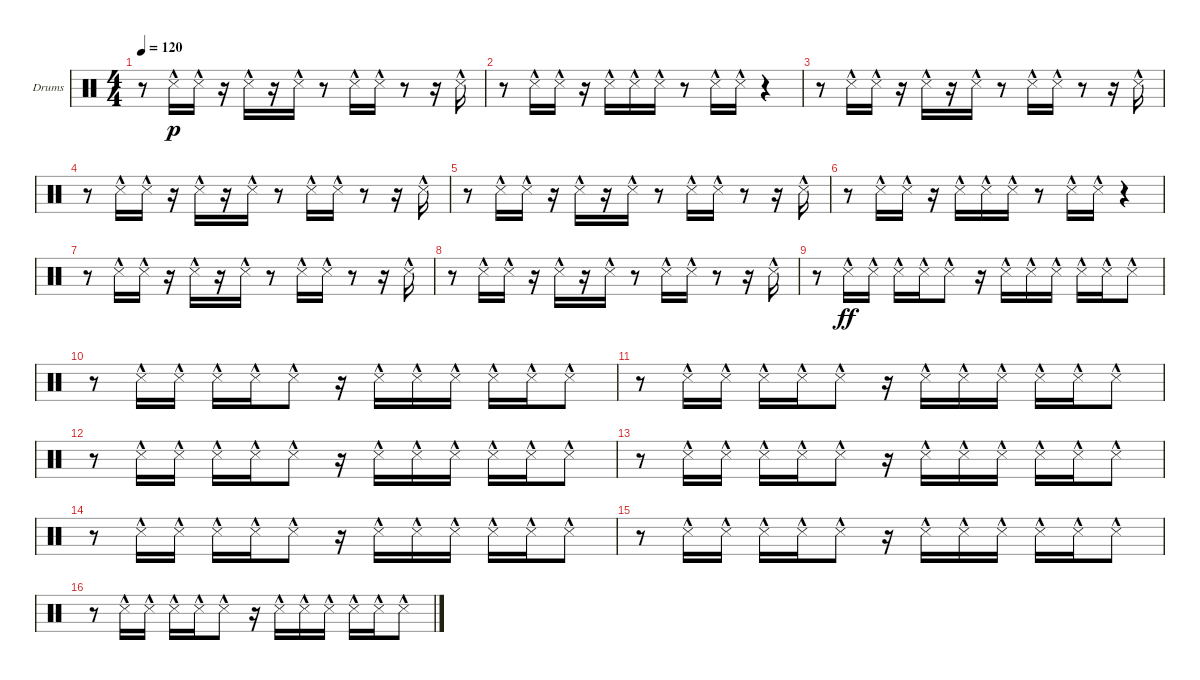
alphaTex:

\defaultSystemsLayout 4
\bracketExtendMode groupsimilarinstruments
\firstSystemTrackNameOrientation horizontal
\otherSystemsTrackNameOrientation horizontal
\track ("Drumkit" "Drums") {instrument percussion}
\staff {score}
\articulation defaults
\ts (4 4)
\tempo 120
\clef neutral
\scale
0.333333
\ks c
r.8{dy p} "Snare (side stick) 3"{hac}.16 "Snare (side stick) 3"{hac}.16 r.16 "Snare (side stick) 3"{hac}.16 r.16 "Snare (side stick) 3"{hac}.16 r.8 "Snare (side stick) 3"{hac}.16 "Snare (side stick) 3"{hac}.16 r.8 r.16 "Snare (side stick) 3"{hac}.16 |
\scale
0.333333 r.8 "Snare (side stick) 3"{hac}.16 "Snare (side stick) 3"{hac}.16 r.16 "Snare (side stick) 3"{hac}.16 "Snare (side stick) 3"{hac}.16 "Snare (side stick) 3"{hac}.16 r.8 "Snare (side stick) 3"{hac}.16 "Snare (side stick) 3"{hac}.16 r.4 |
\scale
0.333333 r.8 "Snare (side stick) 3"{hac}.16 "Snare (side stick) 3"{hac}.16 r.16 "Snare (side stick) 3"{hac}.16 r.16 "Snare (side stick) 3"{hac}.16 r.8 "Snare (side stick) 3"{hac}.16 "Snare (side stick) 3"{hac}.16 r.8 r.16 "Snare (side stick) 3"{hac}.16 |
\scale
0.333333 r.8 "Snare (side stick) 3"{hac}.16 "Snare (side stick) 3"{hac}.16 r.16 "Snare (side stick) 3"{hac}.16 r.16 "Snare (side stick) 3"{hac}.16 r.8 "Snare (side stick) 3"{hac}.16 "Snare (side stick) 3"{hac}.16 r.8 r.16 "Snare (side stick) 3"{hac}.16 |
\scale
0.333333 r.8 "Snare (side stick) 3"{hac}.16 "Snare (side stick) 3"{hac}.16 r.16 "Snare (side stick) 3"{hac}.16 r.16 "Snare (side stick) 3"{hac}.16 r.8 "Snare (side stick) 3"{hac}.16 "Snare (side stick) 3"{hac}.16 r.8 r.16 "Snare (side stick) 3"{hac}.16 |
\scale
0.333333 r.8 "Snare (side stick) 3"{hac}.16 "Snare (side stick) 3"{hac}.16 r.16 "Snare (side stick) 3"{hac}.16 "Snare (side stick) 3"{hac}.16 "Snare (side stick) 3"{hac}.16 r.8 "Snare (side stick) 3"{hac}.16 "Snare (side stick) 3"{hac}.16 r.4 |
\scale
0.333333 r.8 "Snare (side stick) 3"{hac}.16 "Snare (side stick) 3"{hac}.16 r.16 "Snare (side stick) 3"{hac}.16 r.16 "Snare (side stick) 3"{hac}.16 r.8 "Snare (side stick) 3"{hac}.16 "Snare (side stick) 3"{hac}.16 r.8 r.16 "Snare (side stick) 3"{hac}.16 |
\scale
0.333333 r.8 "Snare (side stick) 3"{hac}.16 "Snare (side stick) 3"{hac}.16 r.16 "Snare (side stick) 3"{hac}.16 r.16 "Snare (side stick) 3"{hac}.16 r.8 "Snare (side stick) 3"{hac}.16 "Snare (side stick) 3"{hac}.16 r.8 r.16 "Snare (side stick) 3"{hac}.16 |
\scale
0.333333 r.8 "Snare (side stick) 3"{hac}.16{dy ff} "Snare (side stick) 3"{hac}.16 "Snare (side stick) 3"{hac}.16 "Snare (side stick) 3"{hac}.16 "Snare (side stick) 3"{hac}.8 r.16 "Snare (side stick) 3"{hac}.16 "Snare (side stick) 3"{hac}.16 "Snare (side stick) 3"{hac}.16 "Snare (side stick) 3"{hac}.16 "Snare (side stick) 3"{hac}.16 "Snare (side stick) 3"{hac}.8 |
\scale
0.333333 r.8 "Snare (side stick) 3"{hac}.16 "Snare (side stick) 3"{hac}.16 "Snare (side stick) 3"{hac}.16 "Snare (side stick) 3"{hac}.16 "Snare (side stick) 3"{hac}.8 r.16 "Snare (side stick) 3"{hac}.16 "Snare (side stick) 3"{hac}.16 "Snare (side stick) 3"{hac}.16 "Snare (side stick) 3"{hac}.16 "Snare (side stick) 3"{hac}.16 "Snare (side stick) 3"{hac}.8 |
\scale
0.333333 r.8 "Snare (side stick) 3"{hac}.16 "Snare (side stick) 3"{hac}.16 "Snare (side stick) 3"{hac}.16 "Snare (side stick) 3"{hac}.16 "Snare (side stick) 3"{hac}.8 r.16 "Snare (side stick) 3"{hac}.16 "Snare (side stick) 3"{hac}.16 "Snare (side stick) 3"{hac}.16 "Snare (side stick) 3"{hac}.16 "Snare (side stick) 3"{hac}.16 "Snare (side stick) 3"{hac}.8 |
\scale
0.333333 r.8 "Snare (side stick) 3"{hac}.16 "Snare (side stick) 3"{hac}.16 "Snare (side stick) 3"{hac}.16 "Snare (side stick) 3"{hac}.16 "Snare (side stick) 3"{hac}.8 r.16 "Snare (side stick) 3"{hac}.16 "Snare (side stick) 3"{hac}.16 "Snare (side stick) 3"{hac}.16 "Snare (side stick) 3"{hac}.16 "Snare (side stick) 3"{hac}.16 "Snare (side stick) 3"{hac}.8 |
\scale
0.333333 r.8 "Snare (side stick) 3"{hac}.16 "Snare (side stick) 3"{hac}.16 "Snare (side stick) 3"{hac}.16 "Snare (side stick) 3"{hac}.16 "Snare (side stick) 3"{hac}.8 r.16 "Snare (side stick) 3"{hac}.16 "Snare (side stick) 3"{hac}.16 "Snare (side stick) 3"{hac}.16 "Snare (side stick) 3"{hac}.16 "Snare (side stick) 3"{hac}.16 "Snare (side stick) 3"{hac}.8 |
\scale
0.333333 r.8 "Snare (side stick) 3"{hac}.16 "Snare (side stick) 3"{hac}.16 "Snare (side stick) 3"{hac}.16 "Snare (side stick) 3"{hac}.16 "Snare (side stick) 3"{hac}.8 r.16 "Snare (side stick) 3"{hac}.16 "Snare (side stick) 3"{hac}.16 "Snare (side stick) 3"{hac}.16 "Snare (side stick) 3"{hac}.16 "Snare (side stick) 3"{hac}.16 "Snare (side stick) 3"{hac}.8 |
\scale
0.333333 r.8 "Snare (side stick) 3"{hac}.16 "Snare (side stick) 3"{hac}.16 "Snare (side stick) 3"{hac}.16 "Snare (side stick) 3"{hac}.16 "Snare (side stick) 3"{hac}.8 r.16 "Snare (side stick) 3"{hac}.16 "Snare (side stick) 3"{hac}.16 "Snare (side stick) 3"{hac}.16 "Snare (side stick) 3"{hac}.16 "Snare (side stick) 3"{hac}.16 "Snare (side stick) 3"{hac}.8 |
\scale
0.333333 r.8 "Snare (side stick) 3"{hac}.16 "Snare (side stick) 3"{hac}.16 "Snare (side stick) 3"{hac}.16 "Snare (side stick) 3"{hac}.16 "Snare (side stick) 3"{hac}.8 r.16 "Snare (side stick) 3"{hac}.16 "Snare (side stick) 3"{hac}.16 "Snare (side stick) 3"{hac}.16 "Snare (side stick) 3"{hac}.16 "Snare (side stick) 3"{hac}.16 "Snare (side stick) 3"{hac}.8
